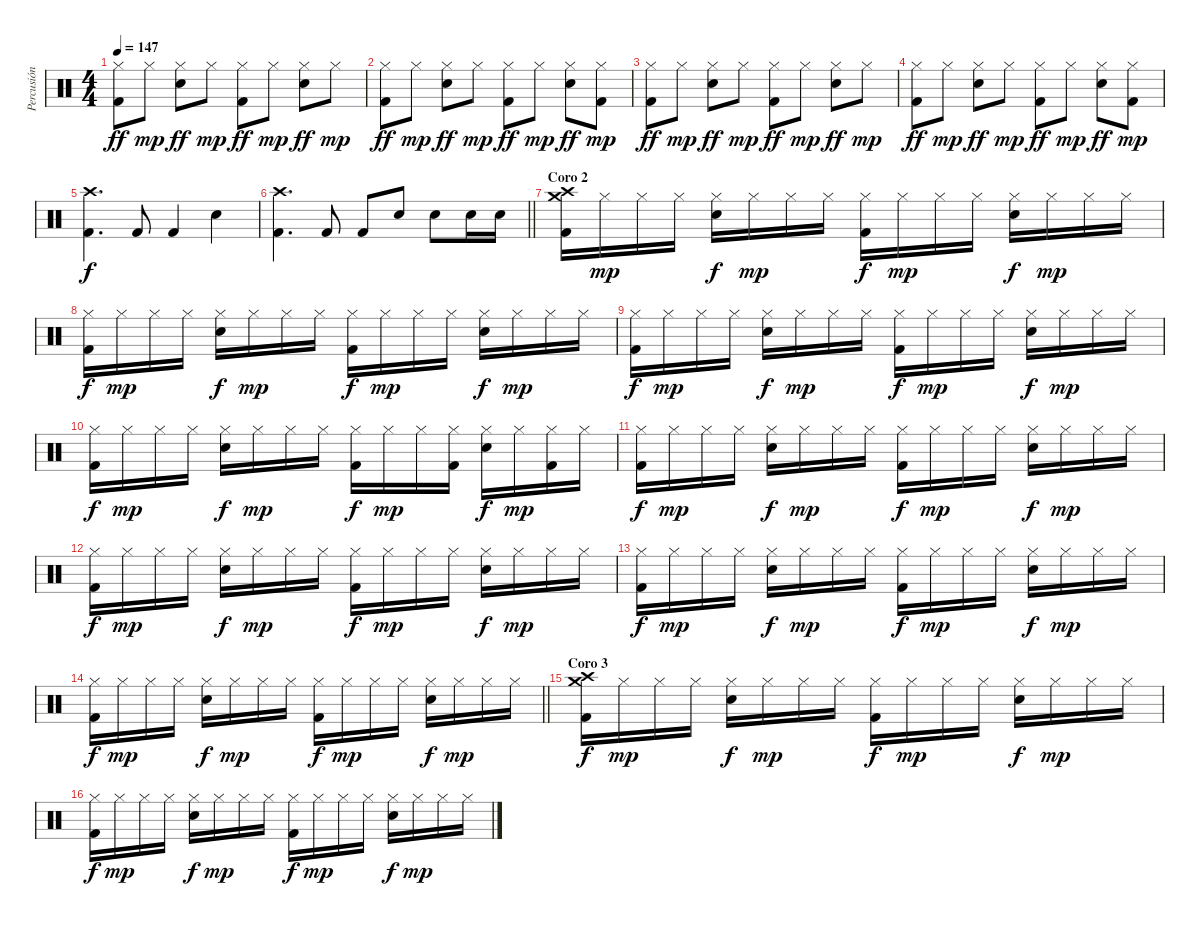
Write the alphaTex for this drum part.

\track ("Percusión" "Percusión") {instrument percussion}
\staff {score}
\articulation defaults
\ts (4 4)
\tempo 147
\clef neutral
\ks c
("Hi-Hat (closed)" "Kick (hit) 2").8{dy ff} "Hi-Hat (closed)".8{dy mp} ("Hi-Hat (closed)" "Snare (hit) 2").8{dy ff} "Hi-Hat (closed)".8{dy mp} ("Hi-Hat (closed)" "Kick (hit) 2").8{dy ff} "Hi-Hat (closed)".8{dy mp} ("Hi-Hat (closed)" "Snare (hit) 2").8{dy ff} "Hi-Hat (closed)".8{dy mp} |
("Hi-Hat (closed)" "Kick (hit) 2").8{dy ff} "Hi-Hat (closed)".8{dy mp} ("Hi-Hat (closed)" "Snare (hit) 2").8{dy ff} "Hi-Hat (closed)".8{dy mp} ("Hi-Hat (closed)" "Kick (hit) 2").8{dy ff} "Hi-Hat (closed)".8{dy mp} ("Hi-Hat (closed)" "Snare (hit) 2").8{dy ff} ("Hi-Hat (closed)" "Kick (hit) 2").8{dy mp} |
("Hi-Hat (closed)" "Kick (hit) 2").8{dy ff} "Hi-Hat (closed)".8{dy mp} ("Hi-Hat (closed)" "Snare (hit) 2").8{dy ff} "Hi-Hat (closed)".8{dy mp} ("Hi-Hat (closed)" "Kick (hit) 2").8{dy ff} "Hi-Hat (closed)".8{dy mp} ("Hi-Hat (closed)" "Snare (hit) 2").8{dy ff} "Hi-Hat (closed)".8{dy mp} |
("Hi-Hat (closed)" "Kick (hit) 2").8{dy ff} "Hi-Hat (closed)".8{dy mp} ("Hi-Hat (closed)" "Snare (hit) 2").8{dy ff} "Hi-Hat (closed)".8{dy mp} ("Hi-Hat (closed)" "Kick (hit) 2").8{dy ff} "Hi-Hat (closed)".8{dy mp} ("Hi-Hat (closed)" "Snare (hit) 2").8{dy ff} ("Hi-Hat (closed)" "Kick (hit) 2").8{dy mp} |
("Crash high (hit)" "Kick (hit) 2").4{d dy f} "Kick (hit) 2".8 "Kick (hit) 2".4 "Snare (hit) 2".4 |
\barLineRight lightlight
("Crash high (hit)" "Kick (hit) 2").4{d} "Kick (hit) 2".8 "Kick (hit) 2".8 "Snare (hit) 2".8 "Snare (hit) 2".8 "Snare (hit) 2".16 "Snare (hit) 2".16 |
\section ("" "Coro 2")
("Crash high (hit)" "Crash medium (hit)" "Kick (hit) 2").16 "Hi-Hat (closed)".16{dy mp} "Hi-Hat (closed)".16 "Hi-Hat (closed)".16 ("Hi-Hat (closed)" "Snare (hit) 2").16{dy f} "Hi-Hat (closed)".16{dy mp} "Hi-Hat (closed)".16 "Hi-Hat (closed)".16 ("Hi-Hat (closed)" "Kick (hit) 2").16{dy f} "Hi-Hat (closed)".16{dy mp} "Hi-Hat (closed)".16 "Hi-Hat (closed)".16 ("Hi-Hat (closed)" "Snare (hit) 2").16{dy f} "Hi-Hat (closed)".16{dy mp} "Hi-Hat (closed)".16 "Hi-Hat (closed)".16 |
("Hi-Hat (closed)" "Kick (hit) 2").16{dy f} "Hi-Hat (closed)".16{dy mp} "Hi-Hat (closed)".16 "Hi-Hat (closed)".16 ("Hi-Hat (closed)" "Snare (hit) 2").16{dy f} "Hi-Hat (closed)".16{dy mp} "Hi-Hat (closed)".16 "Hi-Hat (closed)".16 ("Hi-Hat (closed)" "Kick (hit) 2").16{dy f} "Hi-Hat (closed)".16{dy mp} "Hi-Hat (closed)".16 "Hi-Hat (closed)".16 ("Hi-Hat (closed)" "Snare (hit) 2").16{dy f} "Hi-Hat (closed)".16{dy mp} "Hi-Hat (closed)".16 "Hi-Hat (closed)".16 |
("Hi-Hat (closed)" "Kick (hit) 2").16{dy f} "Hi-Hat (closed)".16{dy mp} "Hi-Hat (closed)".16 "Hi-Hat (closed)".16 ("Hi-Hat (closed)" "Snare (hit) 2").16{dy f} "Hi-Hat (closed)".16{dy mp} "Hi-Hat (closed)".16 "Hi-Hat (closed)".16 ("Hi-Hat (closed)" "Kick (hit) 2").16{dy f} "Hi-Hat (closed)".16{dy mp} "Hi-Hat (closed)".16 "Hi-Hat (closed)".16 ("Hi-Hat (closed)" "Snare (hit) 2").16{dy f} "Hi-Hat (closed)".16{dy mp} "Hi-Hat (closed)".16 "Hi-Hat (closed)".16 |
("Hi-Hat (closed)" "Kick (hit) 2").16{dy f} "Hi-Hat (closed)".16{dy mp} "Hi-Hat (closed)".16 "Hi-Hat (closed)".16 ("Hi-Hat (closed)" "Snare (hit) 2").16{dy f} "Hi-Hat (closed)".16{dy mp} "Hi-Hat (closed)".16 "Hi-Hat (closed)".16 ("Hi-Hat (closed)" "Kick (hit) 2").16{dy f} "Hi-Hat (closed)".16{dy mp} "Hi-Hat (closed)".16 ("Hi-Hat (closed)" "Kick (hit) 2").16 ("Hi-Hat (closed)" "Snare (hit) 2").16{dy f} "Hi-Hat (closed)".16{dy mp} ("Hi-Hat (closed)" "Kick (hit) 2").16 "Hi-Hat (closed)".16 |
("Hi-Hat (closed)" "Kick (hit) 2").16{dy f} "Hi-Hat (closed)".16{dy mp} "Hi-Hat (closed)".16 "Hi-Hat (closed)".16 ("Hi-Hat (closed)" "Snare (hit) 2").16{dy f} "Hi-Hat (closed)".16{dy mp} "Hi-Hat (closed)".16 "Hi-Hat (closed)".16 ("Hi-Hat (closed)" "Kick (hit) 2").16{dy f} "Hi-Hat (closed)".16{dy mp} "Hi-Hat (closed)".16 "Hi-Hat (closed)".16 ("Hi-Hat (closed)" "Snare (hit) 2").16{dy f} "Hi-Hat (closed)".16{dy mp} "Hi-Hat (closed)".16 "Hi-Hat (closed)".16 |
("Hi-Hat (closed)" "Kick (hit) 2").16{dy f} "Hi-Hat (closed)".16{dy mp} "Hi-Hat (closed)".16 "Hi-Hat (closed)".16 ("Hi-Hat (closed)" "Snare (hit) 2").16{dy f} "Hi-Hat (closed)".16{dy mp} "Hi-Hat (closed)".16 "Hi-Hat (closed)".16 ("Hi-Hat (closed)" "Kick (hit) 2").16{dy f} "Hi-Hat (closed)".16{dy mp} "Hi-Hat (closed)".16 "Hi-Hat (closed)".16 ("Hi-Hat (closed)" "Snare (hit) 2").16{dy f} "Hi-Hat (closed)".16{dy mp} "Hi-Hat (closed)".16 "Hi-Hat (closed)".16 |
("Hi-Hat (closed)" "Kick (hit) 2").16{dy f} "Hi-Hat (closed)".16{dy mp} "Hi-Hat (closed)".16 "Hi-Hat (closed)".16 ("Hi-Hat (closed)" "Snare (hit) 2").16{dy f} "Hi-Hat (closed)".16{dy mp} "Hi-Hat (closed)".16 "Hi-Hat (closed)".16 ("Hi-Hat (closed)" "Kick (hit) 2").16{dy f} "Hi-Hat (closed)".16{dy mp} "Hi-Hat (closed)".16 "Hi-Hat (closed)".16 ("Hi-Hat (closed)" "Snare (hit) 2").16{dy f} "Hi-Hat (closed)".16{dy mp} "Hi-Hat (closed)".16 "Hi-Hat (closed)".16 |
\barLineRight lightlight
("Hi-Hat (closed)" "Kick (hit) 2").16{dy f} "Hi-Hat (closed)".16{dy mp} "Hi-Hat (closed)".16 "Hi-Hat (closed)".16 ("Hi-Hat (closed)" "Snare (hit) 2").16{dy f} "Hi-Hat (closed)".16{dy mp} "Hi-Hat (closed)".16 "Hi-Hat (closed)".16 ("Hi-Hat (closed)" "Kick (hit) 2").16{dy f} "Hi-Hat (closed)".16{dy mp} "Hi-Hat (closed)".16 "Hi-Hat (closed)".16 ("Hi-Hat (closed)" "Snare (hit) 2").16{dy f} "Hi-Hat (closed)".16{dy mp} "Hi-Hat (closed)".16 "Hi-Hat (closed)".16 |
\section ("" "Coro 3")
("Crash high (hit)" "Crash medium (hit)" "Kick (hit) 2").16{dy f} "Hi-Hat (closed)".16{dy mp} "Hi-Hat (closed)".16 "Hi-Hat (closed)".16 ("Hi-Hat (closed)" "Snare (hit) 2").16{dy f} "Hi-Hat (closed)".16{dy mp} "Hi-Hat (closed)".16 "Hi-Hat (closed)".16 ("Hi-Hat (closed)" "Kick (hit) 2").16{dy f} "Hi-Hat (closed)".16{dy mp} "Hi-Hat (closed)".16 "Hi-Hat (closed)".16 ("Hi-Hat (closed)" "Snare (hit) 2").16{dy f} "Hi-Hat (closed)".16{dy mp} "Hi-Hat (closed)".16 "Hi-Hat (closed)".16 |
("Hi-Hat (closed)" "Kick (hit) 2").16{dy f} "Hi-Hat (closed)".16{dy mp} "Hi-Hat (closed)".16 "Hi-Hat (closed)".16 ("Hi-Hat (closed)" "Snare (hit) 2").16{dy f} "Hi-Hat (closed)".16{dy mp} "Hi-Hat (closed)".16 "Hi-Hat (closed)".16 ("Hi-Hat (closed)" "Kick (hit) 2").16{dy f} "Hi-Hat (closed)".16{dy mp} "Hi-Hat (closed)".16 "Hi-Hat (closed)".16 ("Hi-Hat (closed)" "Snare (hit) 2").16{dy f} "Hi-Hat (closed)".16{dy mp} "Hi-Hat (closed)".16 "Hi-Hat (closed)".16
